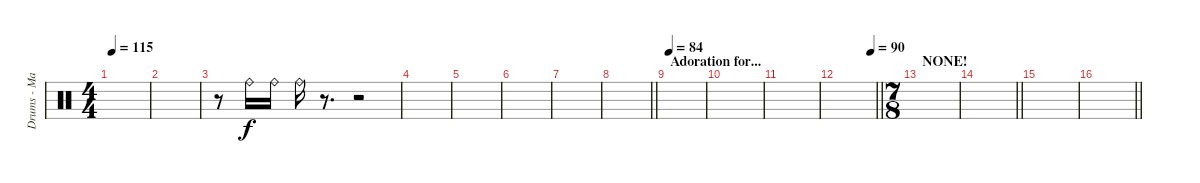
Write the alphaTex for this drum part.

\track ("Drums - Mario Duplantier" "Drums - Ma") {instrument percussion}
\staff {score}
\articulation defaults
\ts (4 4)
\tempo 115
\clef neutral
\ks c
|
|
r.8 "Ride (bell)".16 "Ride (bell)".16 "Ride (bell)".16 r.8{d} r.2 |
|
|
|
|
\barLineRight lightlight
|
\section ("" "Adoration for...")
\tempo 84
|
|
|
\tempo (90 0.875)
\barLineRight lightlight
|
\ts (7 8)
\section ("" "NONE!")
|
\barLineRight lightlight
|
|
\barLineRight lightlight
